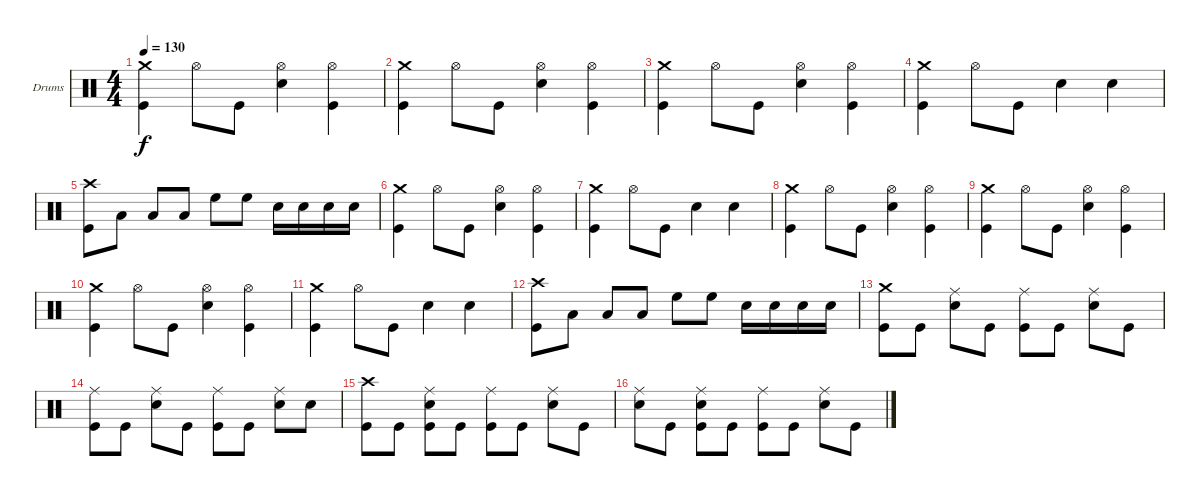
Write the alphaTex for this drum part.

\bracketExtendMode groupsimilarinstruments
\firstSystemTrackNameOrientation horizontal
\otherSystemsTrackNameOrientation horizontal
\track ("Drumkit" "Drums") {instrument percussion}
\staff {score}
\articulation defaults
\ts (4 4)
\tempo 130
\clef neutral
\ks c
("Crash medium (hit)" "Kick (hit)").4{dy f} "Hi-Hat (open)".8 "Kick (hit)".8 ("Hi-Hat (open)" "Snare (hit) 2").4 ("Kick (hit)" "Hi-Hat (open)").4 |
("Crash medium (hit)" "Kick (hit)").4 "Hi-Hat (open)".8 "Kick (hit)".8 ("Hi-Hat (open)" "Snare (hit) 2").4 ("Kick (hit)" "Hi-Hat (open)").4 |
("Crash medium (hit)" "Kick (hit)").4 "Hi-Hat (open)".8 "Kick (hit)".8 ("Hi-Hat (open)" "Snare (hit) 2").4 ("Kick (hit)" "Hi-Hat (open)").4 |
("Crash medium (hit)" "Kick (hit)").4 "Hi-Hat (open)".8 "Kick (hit)".8 "Snare (hit) 2".4 "Snare (hit) 2".4 |
("Crash high (hit)" "Kick (hit)").8 "Low Tom (hit)".8 "Low Tom (hit)".8 "Low Tom (hit)".8 "High Floor Tom (hit)".8 "High Floor Tom (hit)".8 "Snare (hit) 2".16 "Snare (hit) 2".16 "Snare (hit) 2".16 "Snare (hit) 2".16 |
("Crash medium (hit)" "Kick (hit)").4 "Hi-Hat (open)".8 "Kick (hit)".8 ("Hi-Hat (open)" "Snare (hit) 2").4 ("Kick (hit)" "Hi-Hat (open)").4 |
("Crash medium (hit)" "Kick (hit)").4 "Hi-Hat (open)".8 "Kick (hit)".8 "Snare (hit) 2".4 "Snare (hit) 2".4 |
("Crash medium (hit)" "Kick (hit)").4 "Hi-Hat (open)".8 "Kick (hit)".8 ("Hi-Hat (open)" "Snare (hit) 2").4 ("Kick (hit)" "Hi-Hat (open)").4 |
("Crash medium (hit)" "Kick (hit)").4 "Hi-Hat (open)".8 "Kick (hit)".8 ("Hi-Hat (open)" "Snare (hit) 2").4 ("Kick (hit)" "Hi-Hat (open)").4 |
("Crash medium (hit)" "Kick (hit)").4 "Hi-Hat (open)".8 "Kick (hit)".8 ("Hi-Hat (open)" "Snare (hit) 2").4 ("Kick (hit)" "Hi-Hat (open)").4 |
("Crash medium (hit)" "Kick (hit)").4 "Hi-Hat (open)".8 "Kick (hit)".8 "Snare (hit) 2".4 "Snare (hit) 2".4 |
("Crash high (hit)" "Kick (hit)").8 "Low Tom (hit)".8 "Low Tom (hit)".8 "Low Tom (hit)".8 "High Floor Tom (hit)".8 "High Floor Tom (hit)".8 "Snare (hit) 2".16 "Snare (hit) 2".16 "Snare (hit) 2".16 "Snare (hit) 2".16 |
("Crash medium (hit)" "Kick (hit)").8 "Kick (hit)".8 ("Ride (middle)" "Snare (hit) 2").8 "Kick (hit)".8 ("Ride (middle)" "Kick (hit)").8 "Kick (hit)".8 ("Ride (middle)" "Snare (hit) 2").8 "Kick (hit)".8 |
("Kick (hit)" "Ride (middle)").8 "Kick (hit)".8 ("Ride (middle)" "Snare (hit) 2").8 "Kick (hit)".8 ("Kick (hit)" "Ride (middle)").8 "Kick (hit)".8 ("Snare (hit) 2" "Ride (middle)").8 "Snare (hit) 2".8 |
("Crash high (hit)" "Kick (hit)").8 "Kick (hit)".8 ("Ride (middle)" "Kick (hit)" "Snare (hit) 2").8 "Kick (hit)".8 ("Kick (hit)" "Ride (middle)").8 "Kick (hit)".8 ("Ride (middle)" "Snare (hit) 2").8 "Kick (hit)".8 |
("Ride (middle)" "Snare (hit) 2").8 "Kick (hit)".8 ("Ride (middle)" "Snare (hit) 2" "Kick (hit)").8 "Kick (hit)".8 ("Ride (middle)" "Kick (hit)").8 "Kick (hit)".8 ("Ride (middle)" "Snare (hit) 2").8 "Kick (hit)".8
